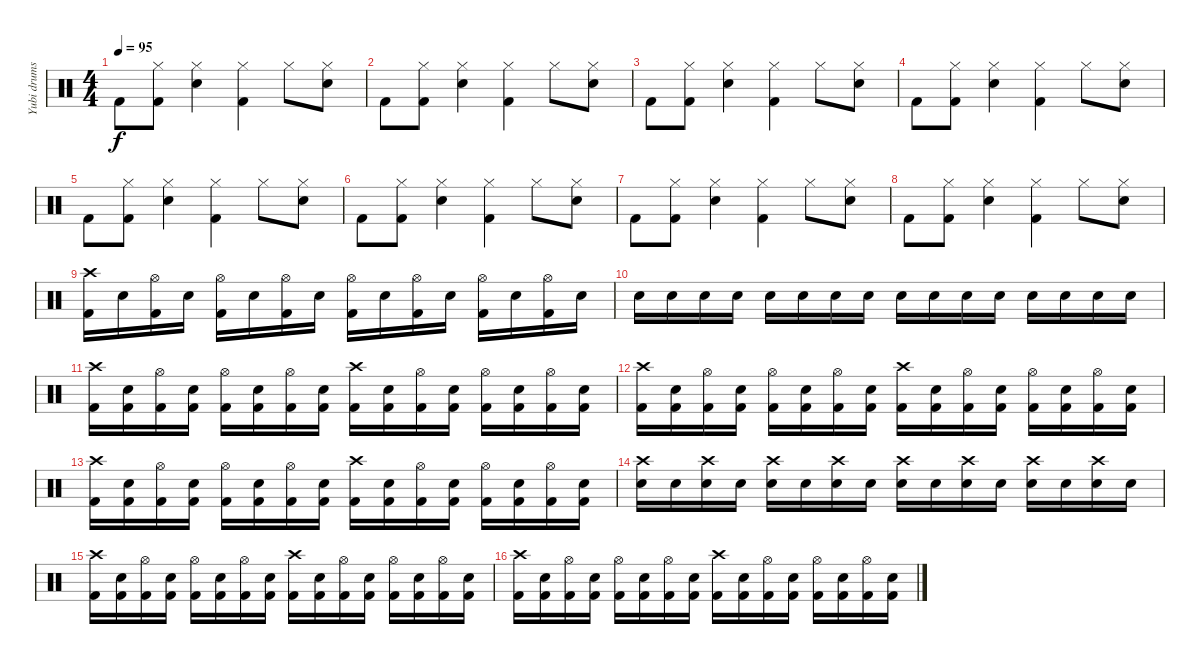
\track ("Yubi drums" "Yubi drums") {instrument percussion}
\staff {score}
\articulation defaults
\ts (4 4)
\tempo 95
\clef neutral
\ks c "Kick (hit) 2".8{dy f}
("Kick (hit) 2" "Hi-Hat (closed)").8 ("Snare (hit) 2" "Hi-Hat (closed)").4 ("Kick (hit) 2" "Hi-Hat (closed)").4 "Hi-Hat (closed)".8 ("Snare (hit) 2" "Hi-Hat (closed)").8 |
"Kick (hit) 2".8 ("Kick (hit) 2" "Hi-Hat (closed)").8 ("Snare (hit) 2" "Hi-Hat (closed)").4 ("Kick (hit) 2" "Hi-Hat (closed)").4 "Hi-Hat (closed)".8 ("Snare (hit) 2" "Hi-Hat (closed)").8 |
"Kick (hit) 2".8 ("Kick (hit) 2" "Hi-Hat (closed)").8 ("Snare (hit) 2" "Hi-Hat (closed)").4 ("Kick (hit) 2" "Hi-Hat (closed)").4 "Hi-Hat (closed)".8 ("Snare (hit) 2" "Hi-Hat (closed)").8 |
"Kick (hit) 2".8 ("Kick (hit) 2" "Hi-Hat (closed)").8 ("Snare (hit) 2" "Hi-Hat (closed)").4 ("Kick (hit) 2" "Hi-Hat (closed)").4 "Hi-Hat (closed)".8 ("Snare (hit) 2" "Hi-Hat (closed)").8 |
"Kick (hit) 2".8 ("Kick (hit) 2" "Hi-Hat (closed)").8 ("Snare (hit) 2" "Hi-Hat (closed)").4 ("Kick (hit) 2" "Hi-Hat (closed)").4 "Hi-Hat (closed)".8 ("Snare (hit) 2" "Hi-Hat (closed)").8 |
"Kick (hit) 2".8 ("Kick (hit) 2" "Hi-Hat (closed)").8 ("Snare (hit) 2" "Hi-Hat (closed)").4 ("Kick (hit) 2" "Hi-Hat (closed)").4 "Hi-Hat (closed)".8 ("Snare (hit) 2" "Hi-Hat (closed)").8 |
"Kick (hit) 2".8 ("Kick (hit) 2" "Hi-Hat (closed)").8 ("Snare (hit) 2" "Hi-Hat (closed)").4 ("Kick (hit) 2" "Hi-Hat (closed)").4 "Hi-Hat (closed)".8 ("Snare (hit) 2" "Hi-Hat (closed)").8 |
"Kick (hit) 2".8 ("Kick (hit) 2" "Hi-Hat (closed)").8 ("Snare (hit) 2" "Hi-Hat (closed)").4 ("Kick (hit) 2" "Hi-Hat (closed)").4 "Hi-Hat (closed)".8 ("Snare (hit) 2" "Hi-Hat (closed)").8 |
("Kick (hit) 2" "Crash high (hit)").16 "Snare (hit) 2".16 ("Kick (hit) 2" "Hi-Hat (open)").16 "Snare (hit) 2".16 ("Kick (hit) 2" "Hi-Hat (open)").16 "Snare (hit) 2".16 ("Kick (hit) 2" "Hi-Hat (open)").16 "Snare (hit) 2".16 ("Kick (hit) 2" "Hi-Hat (open)").16 "Snare (hit) 2".16 ("Kick (hit) 2" "Hi-Hat (open)").16 "Snare (hit) 2".16 ("Kick (hit) 2" "Hi-Hat (open)").16 "Snare (hit) 2".16 ("Kick (hit) 2" "Hi-Hat (open)").16 "Snare (hit) 2".16 |
"Snare (hit) 2".16 "Snare (hit) 2".16 "Snare (hit) 2".16 "Snare (hit) 2".16 "Snare (hit) 2".16 "Snare (hit) 2".16 "Snare (hit) 2".16 "Snare (hit) 2".16 "Snare (hit) 2".16 "Snare (hit) 2".16 "Snare (hit) 2".16 "Snare (hit) 2".16 "Snare (hit) 2".16 "Snare (hit) 2".16 "Snare (hit) 2".16 "Snare (hit) 2".16 |
("Kick (hit) 2" "Crash high (hit)").16 ("Kick (hit) 2" "Snare (hit) 2").16 ("Kick (hit) 2" "Hi-Hat (open)").16 ("Kick (hit) 2" "Snare (hit) 2").16 ("Kick (hit) 2" "Hi-Hat (open)").16 ("Kick (hit) 2" "Snare (hit) 2").16 ("Kick (hit) 2" "Hi-Hat (open)").16 ("Kick (hit) 2" "Snare (hit) 2").16 ("Kick (hit) 2" "Crash high (hit)").16 ("Kick (hit) 2" "Snare (hit) 2").16 ("Kick (hit) 2" "Hi-Hat (open)").16 ("Kick (hit) 2" "Snare (hit) 2").16 ("Kick (hit) 2" "Hi-Hat (open)").16 ("Kick (hit) 2" "Snare (hit) 2").16 ("Kick (hit) 2" "Hi-Hat (open)").16 ("Kick (hit) 2" "Snare (hit) 2").16 |
("Kick (hit) 2" "Crash high (hit)").16 ("Kick (hit) 2" "Snare (hit) 2").16 ("Kick (hit) 2" "Hi-Hat (open)").16 ("Kick (hit) 2" "Snare (hit) 2").16 ("Kick (hit) 2" "Hi-Hat (open)").16 ("Kick (hit) 2" "Snare (hit) 2").16 ("Kick (hit) 2" "Hi-Hat (open)").16 ("Kick (hit) 2" "Snare (hit) 2").16 ("Kick (hit) 2" "Crash high (hit)").16 ("Kick (hit) 2" "Snare (hit) 2").16 ("Kick (hit) 2" "Hi-Hat (open)").16 ("Kick (hit) 2" "Snare (hit) 2").16 ("Kick (hit) 2" "Hi-Hat (open)").16 ("Kick (hit) 2" "Snare (hit) 2").16 ("Kick (hit) 2" "Hi-Hat (open)").16 ("Kick (hit) 2" "Snare (hit) 2").16 |
("Kick (hit) 2" "Crash high (hit)").16 ("Kick (hit) 2" "Snare (hit) 2").16 ("Kick (hit) 2" "Hi-Hat (open)").16 ("Kick (hit) 2" "Snare (hit) 2").16 ("Kick (hit) 2" "Hi-Hat (open)").16 ("Kick (hit) 2" "Snare (hit) 2").16 ("Kick (hit) 2" "Hi-Hat (open)").16 ("Kick (hit) 2" "Snare (hit) 2").16 ("Kick (hit) 2" "Crash high (hit)").16 ("Kick (hit) 2" "Snare (hit) 2").16 ("Kick (hit) 2" "Hi-Hat (open)").16 ("Kick (hit) 2" "Snare (hit) 2").16 ("Kick (hit) 2" "Hi-Hat (open)").16 ("Kick (hit) 2" "Snare (hit) 2").16 ("Kick (hit) 2" "Hi-Hat (open)").16 ("Kick (hit) 2" "Snare (hit) 2").16 |
("Snare (hit) 2" "Crash high (hit)").16 "Snare (hit) 2".16 ("Snare (hit) 2" "Crash high (hit)").16 "Snare (hit) 2".16 ("Snare (hit) 2" "Crash high (hit)").16 "Snare (hit) 2".16 ("Snare (hit) 2" "Crash high (hit)").16 "Snare (hit) 2".16 ("Snare (hit) 2" "Crash high (hit)").16 "Snare (hit) 2".16 ("Snare (hit) 2" "Crash high (hit)").16 "Snare (hit) 2".16 ("Snare (hit) 2" "Crash high (hit)").16 "Snare (hit) 2".16 ("Snare (hit) 2" "Crash high (hit)").16 "Snare (hit) 2".16 |
("Kick (hit) 2" "Crash high (hit)").16 ("Kick (hit) 2" "Snare (hit) 2").16 ("Kick (hit) 2" "Hi-Hat (open)").16 ("Kick (hit) 2" "Snare (hit) 2").16 ("Kick (hit) 2" "Hi-Hat (open)").16 ("Kick (hit) 2" "Snare (hit) 2").16 ("Kick (hit) 2" "Hi-Hat (open)").16 ("Kick (hit) 2" "Snare (hit) 2").16 ("Kick (hit) 2" "Crash high (hit)").16 ("Kick (hit) 2" "Snare (hit) 2").16 ("Kick (hit) 2" "Hi-Hat (open)").16 ("Kick (hit) 2" "Snare (hit) 2").16 ("Kick (hit) 2" "Hi-Hat (open)").16 ("Kick (hit) 2" "Snare (hit) 2").16 ("Kick (hit) 2" "Hi-Hat (open)").16 ("Kick (hit) 2" "Snare (hit) 2").16 |
("Kick (hit) 2" "Crash high (hit)").16 ("Kick (hit) 2" "Snare (hit) 2").16 ("Kick (hit) 2" "Hi-Hat (open)").16 ("Kick (hit) 2" "Snare (hit) 2").16 ("Kick (hit) 2" "Hi-Hat (open)").16 ("Kick (hit) 2" "Snare (hit) 2").16 ("Kick (hit) 2" "Hi-Hat (open)").16 ("Kick (hit) 2" "Snare (hit) 2").16 ("Kick (hit) 2" "Crash high (hit)").16 ("Kick (hit) 2" "Snare (hit) 2").16 ("Kick (hit) 2" "Hi-Hat (open)").16 ("Kick (hit) 2" "Snare (hit) 2").16 ("Kick (hit) 2" "Hi-Hat (open)").16 ("Kick (hit) 2" "Snare (hit) 2").16 ("Kick (hit) 2" "Hi-Hat (open)").16 ("Kick (hit) 2" "Snare (hit) 2").16
